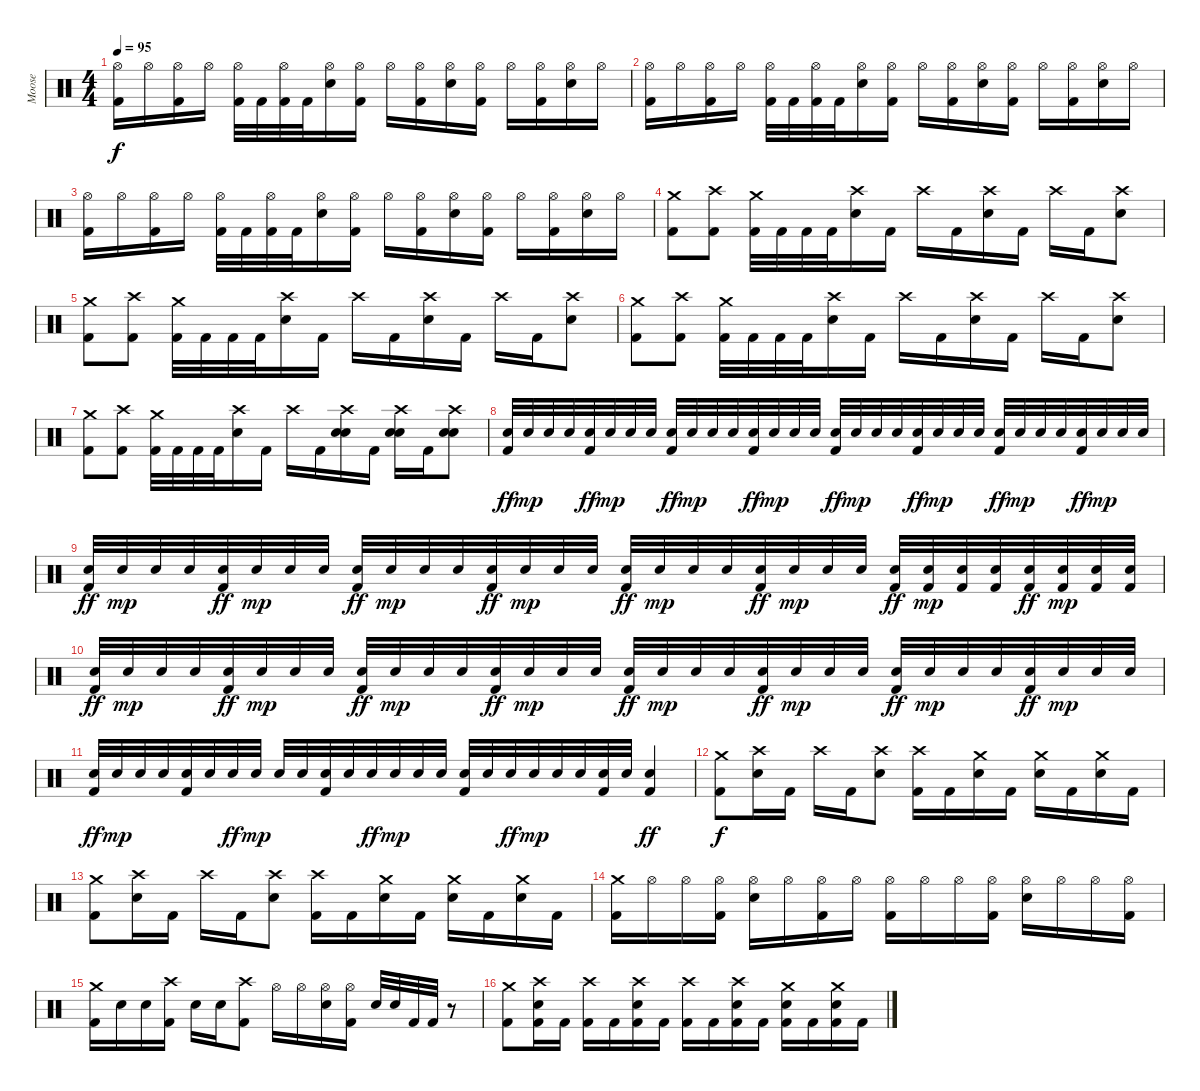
\track ("Moose" "Moose") {instrument percussion}
\staff {score}
\articulation defaults
\ts (4 4)
\tempo 95
\clef neutral
\ks c
("Hi-Hat (open)" "Kick (hit) 2").16{dy f} "Hi-Hat (open)".16 ("Hi-Hat (open)" "Kick (hit) 2").16 "Hi-Hat (open)".16 ("Hi-Hat (open)" "Kick (hit) 2").32 "Kick (hit) 2".32 ("Hi-Hat (open)" "Kick (hit) 2").32 "Kick (hit) 2".32 ("Hi-Hat (open)" "Electric Snare (hit)").16 ("Hi-Hat (open)" "Kick (hit) 2").16 "Hi-Hat (open)".16 ("Hi-Hat (open)" "Kick (hit) 2").16 ("Hi-Hat (open)" "Electric Snare (hit)").16 ("Hi-Hat (open)" "Kick (hit) 2").16 "Hi-Hat (open)".16 ("Hi-Hat (open)" "Kick (hit) 2").16 ("Hi-Hat (open)" "Electric Snare (hit)").16 "Hi-Hat (open)".16 |
("Hi-Hat (open)" "Kick (hit) 2").16 "Hi-Hat (open)".16 ("Hi-Hat (open)" "Kick (hit) 2").16 "Hi-Hat (open)".16 ("Hi-Hat (open)" "Kick (hit) 2").32 "Kick (hit) 2".32 ("Hi-Hat (open)" "Kick (hit) 2").32 "Kick (hit) 2".32 ("Hi-Hat (open)" "Electric Snare (hit)").16 ("Hi-Hat (open)" "Kick (hit) 2").16 "Hi-Hat (open)".16 ("Hi-Hat (open)" "Kick (hit) 2").16 ("Hi-Hat (open)" "Electric Snare (hit)").16 ("Hi-Hat (open)" "Kick (hit) 2").16 "Hi-Hat (open)".16 ("Hi-Hat (open)" "Kick (hit) 2").16 ("Hi-Hat (open)" "Electric Snare (hit)").16 "Hi-Hat (open)".16 |
("Hi-Hat (open)" "Kick (hit) 2").16 "Hi-Hat (open)".16 ("Hi-Hat (open)" "Kick (hit) 2").16 "Hi-Hat (open)".16 ("Hi-Hat (open)" "Kick (hit) 2").32 "Kick (hit) 2".32 ("Hi-Hat (open)" "Kick (hit) 2").32 "Kick (hit) 2".32 ("Hi-Hat (open)" "Electric Snare (hit)").16 ("Hi-Hat (open)" "Kick (hit) 2").16 "Hi-Hat (open)".16 ("Hi-Hat (open)" "Kick (hit) 2").16 ("Hi-Hat (open)" "Electric Snare (hit)").16 ("Hi-Hat (open)" "Kick (hit) 2").16 "Hi-Hat (open)".16 ("Hi-Hat (open)" "Kick (hit) 2").16 ("Hi-Hat (open)" "Electric Snare (hit)").16 "Hi-Hat (open)".16 |
("Crash medium (hit)" "Kick (hit) 2").8 ("Crash high (hit)" "Kick (hit) 2").8 ("Crash medium (hit)" "Kick (hit) 2").32 "Kick (hit) 2".32 "Kick (hit) 2".32 "Kick (hit) 2".32 ("Crash high (hit)" "Electric Snare (hit)").16 "Kick (hit) 2".16 "Crash high (hit)".16 "Kick (hit) 2".16 ("Crash high (hit)" "Electric Snare (hit)").16 "Kick (hit) 2".16 "Crash high (hit)".16 "Kick (hit) 2".16 ("Crash high (hit)" "Electric Snare (hit)").8 |
("Crash medium (hit)" "Kick (hit) 2").8 ("Crash high (hit)" "Kick (hit) 2").8 ("Crash medium (hit)" "Kick (hit) 2").32 "Kick (hit) 2".32 "Kick (hit) 2".32 "Kick (hit) 2".32 ("Crash high (hit)" "Electric Snare (hit)").16 "Kick (hit) 2".16 "Crash high (hit)".16 "Kick (hit) 2".16 ("Crash high (hit)" "Electric Snare (hit)").16 "Kick (hit) 2".16 "Crash high (hit)".16 "Kick (hit) 2".16 ("Crash high (hit)" "Electric Snare (hit)").8 |
("Crash medium (hit)" "Kick (hit) 2").8 ("Crash high (hit)" "Kick (hit) 2").8 ("Crash medium (hit)" "Kick (hit) 2").32 "Kick (hit) 2".32 "Kick (hit) 2".32 "Kick (hit) 2".32 ("Crash high (hit)" "Electric Snare (hit)").16 "Kick (hit) 2".16 "Crash high (hit)".16 "Kick (hit) 2".16 ("Crash high (hit)" "Electric Snare (hit)").16 "Kick (hit) 2".16 "Crash high (hit)".16 "Kick (hit) 2".16 ("Crash high (hit)" "Electric Snare (hit)").8 |
("Crash medium (hit)" "Kick (hit) 2").8 ("Crash high (hit)" "Kick (hit) 2").8 ("Crash medium (hit)" "Kick (hit) 2").32 "Kick (hit) 2".32 "Kick (hit) 2".32 "Kick (hit) 2".32 ("Crash high (hit)" "Electric Snare (hit)").16 "Kick (hit) 2".16 "Crash high (hit)".16 "Kick (hit) 2".16 ("Crash high (hit)" "Electric Snare (hit)" "Electric Snare (hit)").16 "Kick (hit) 2".16 ("Crash high (hit)" "Electric Snare (hit)" "Electric Snare (hit)").16 "Kick (hit) 2".16 ("Crash high (hit)" "Electric Snare (hit)" "Electric Snare (hit)").8 |
("Electric Snare (hit)" "Kick (hit) 2").32{dy ff} "Electric Snare (hit)".32{dy mp} "Electric Snare (hit)".32 "Electric Snare (hit)".32 ("Electric Snare (hit)" "Kick (hit) 2").32{dy ff} "Electric Snare (hit)".32{dy mp} "Electric Snare (hit)".32 "Electric Snare (hit)".32 ("Electric Snare (hit)" "Kick (hit) 2").32{dy ff} "Electric Snare (hit)".32{dy mp} "Electric Snare (hit)".32 "Electric Snare (hit)".32 ("Electric Snare (hit)" "Kick (hit) 2").32{dy ff} "Electric Snare (hit)".32{dy mp} "Electric Snare (hit)".32 "Electric Snare (hit)".32 ("Electric Snare (hit)" "Kick (hit) 2").32{dy ff} "Electric Snare (hit)".32{dy mp} "Electric Snare (hit)".32 "Electric Snare (hit)".32 ("Electric Snare (hit)" "Kick (hit) 2").32{dy ff} "Electric Snare (hit)".32{dy mp} "Electric Snare (hit)".32 "Electric Snare (hit)".32 ("Electric Snare (hit)" "Kick (hit) 2").32{dy ff} "Electric Snare (hit)".32{dy mp} "Electric Snare (hit)".32 "Electric Snare (hit)".32 ("Electric Snare (hit)" "Kick (hit) 2").32{dy ff} "Electric Snare (hit)".32{dy mp} "Electric Snare (hit)".32 "Electric Snare (hit)".32 |
("Electric Snare (hit)" "Kick (hit) 2").32{dy ff} "Electric Snare (hit)".32{dy mp} "Electric Snare (hit)".32 "Electric Snare (hit)".32 ("Electric Snare (hit)" "Kick (hit) 2").32{dy ff} "Electric Snare (hit)".32{dy mp} "Electric Snare (hit)".32 "Electric Snare (hit)".32 ("Electric Snare (hit)" "Kick (hit) 2").32{dy ff} "Electric Snare (hit)".32{dy mp} "Electric Snare (hit)".32 "Electric Snare (hit)".32 ("Electric Snare (hit)" "Kick (hit) 2").32{dy ff} "Electric Snare (hit)".32{dy mp} "Electric Snare (hit)".32 "Electric Snare (hit)".32 ("Electric Snare (hit)" "Kick (hit) 2").32{dy ff} "Electric Snare (hit)".32{dy mp} "Electric Snare (hit)".32 "Electric Snare (hit)".32 ("Electric Snare (hit)" "Kick (hit) 2").32{dy ff} "Electric Snare (hit)".32{dy mp} "Electric Snare (hit)".32 "Electric Snare (hit)".32 ("Electric Snare (hit)" "Kick (hit) 2").32{dy ff} ("Electric Snare (hit)" "Kick (hit) 2").32{dy mp} ("Electric Snare (hit)" "Kick (hit) 2").32 ("Electric Snare (hit)" "Kick (hit) 2").32 ("Electric Snare (hit)" "Kick (hit) 2").32{dy ff} ("Electric Snare (hit)" "Kick (hit) 2").32{dy mp} ("Electric Snare (hit)" "Kick (hit) 2").32 ("Electric Snare (hit)" "Kick (hit) 2").32 |
("Electric Snare (hit)" "Kick (hit) 2").32{dy ff} "Electric Snare (hit)".32{dy mp} "Electric Snare (hit)".32 "Electric Snare (hit)".32 ("Electric Snare (hit)" "Kick (hit) 2").32{dy ff} "Electric Snare (hit)".32{dy mp} "Electric Snare (hit)".32 "Electric Snare (hit)".32 ("Electric Snare (hit)" "Kick (hit) 2").32{dy ff} "Electric Snare (hit)".32{dy mp} "Electric Snare (hit)".32 "Electric Snare (hit)".32 ("Electric Snare (hit)" "Kick (hit) 2").32{dy ff} "Electric Snare (hit)".32{dy mp} "Electric Snare (hit)".32 "Electric Snare (hit)".32 ("Electric Snare (hit)" "Kick (hit) 2").32{dy ff} "Electric Snare (hit)".32{dy mp} "Electric Snare (hit)".32 "Electric Snare (hit)".32 ("Electric Snare (hit)" "Kick (hit) 2").32{dy ff} "Electric Snare (hit)".32{dy mp} "Electric Snare (hit)".32 "Electric Snare (hit)".32 ("Electric Snare (hit)" "Kick (hit) 2").32{dy ff} "Electric Snare (hit)".32{dy mp} "Electric Snare (hit)".32 "Electric Snare (hit)".32 ("Electric Snare (hit)" "Kick (hit) 2").32{dy ff} "Electric Snare (hit)".32{dy mp} "Electric Snare (hit)".32 "Electric Snare (hit)".32 |
("Electric Snare (hit)" "Kick (hit) 2").32{dy ff} "Electric Snare (hit)".32{dy mp} "Electric Snare (hit)".32 "Electric Snare (hit)".32 ("Electric Snare (hit)" "Kick (hit) 2").32 "Electric Snare (hit)".32 "Electric Snare (hit)".32{dy ff} "Electric Snare (hit)".32{dy mp} "Electric Snare (hit)".32 "Electric Snare (hit)".32 ("Electric Snare (hit)" "Kick (hit) 2").32 "Electric Snare (hit)".32 "Electric Snare (hit)".32{dy ff} "Electric Snare (hit)".32{dy mp} "Electric Snare (hit)".32 "Electric Snare (hit)".32 ("Electric Snare (hit)" "Kick (hit) 2").32 "Electric Snare (hit)".32 "Electric Snare (hit)".32{dy ff} "Electric Snare (hit)".32{dy mp} "Electric Snare (hit)".32 "Electric Snare (hit)".32 ("Electric Snare (hit)" "Kick (hit) 2").32 "Electric Snare (hit)".32 ("Electric Snare (hit)" "Kick (hit) 2").4{dy ff} |
("Crash medium (hit)" "Kick (hit) 2").8{dy f} ("Crash high (hit)" "Electric Snare (hit)").16 "Kick (hit) 2".16 "Crash high (hit)".16 "Kick (hit) 2".16 ("Crash high (hit)" "Electric Snare (hit)").8 ("Crash high (hit)" "Kick (hit) 2").16 "Kick (hit) 2".16 ("Crash medium (hit)" "Electric Snare (hit)").16 "Kick (hit) 2".16 ("Crash medium (hit)" "Electric Snare (hit)").16 "Kick (hit) 2".16 ("Crash medium (hit)" "Electric Snare (hit)").16 "Kick (hit) 2".16 |
("Crash medium (hit)" "Kick (hit) 2").8 ("Crash high (hit)" "Electric Snare (hit)").16 "Kick (hit) 2".16 "Crash high (hit)".16 "Kick (hit) 2".16 ("Crash high (hit)" "Electric Snare (hit)").8 ("Crash high (hit)" "Kick (hit) 2").16 "Kick (hit) 2".16 ("Crash medium (hit)" "Electric Snare (hit)").16 "Kick (hit) 2".16 ("Crash medium (hit)" "Electric Snare (hit)").16 "Kick (hit) 2".16 ("Crash medium (hit)" "Electric Snare (hit)").16 "Kick (hit) 2".16 |
("Crash medium (hit)" "Kick (hit) 2").16 "Hi-Hat (open)".16 "Hi-Hat (open)".16 ("Hi-Hat (open)" "Kick (hit) 2").16 ("Hi-Hat (open)" "Electric Snare (hit)").16 "Hi-Hat (open)".16 ("Hi-Hat (open)" "Kick (hit) 2").16 "Hi-Hat (open)".16 ("Hi-Hat (open)" "Kick (hit) 2").16 "Hi-Hat (open)".16 "Hi-Hat (open)".16 ("Hi-Hat (open)" "Kick (hit) 2").16 ("Hi-Hat (open)" "Electric Snare (hit)").16 "Hi-Hat (open)".16 "Hi-Hat (open)".16 ("Hi-Hat (open)" "Kick (hit) 2").16 |
("Crash medium (hit)" "Kick (hit) 2").16 "Electric Snare (hit)".16 "Electric Snare (hit)".16 ("Crash high (hit)" "Kick (hit) 2").16 "Electric Snare (hit)".16 "Electric Snare (hit)".16 ("Crash high (hit)" "Kick (hit) 2").8 "Hi-Hat (open)".16 "Hi-Hat (open)".16 ("Hi-Hat (open)" "Electric Snare (hit)").16 ("Hi-Hat (open)" "Kick (hit) 2").16 "Electric Snare (hit)".32 "Electric Snare (hit)".32 "Kick (hit) 2".32 "Kick (hit) 2".32 r.8 |
("Crash medium (hit)" "Kick (hit) 2").8 ("Crash high (hit)" "Electric Snare (hit)" "Kick (hit) 2").16 "Kick (hit) 2".16 ("Crash high (hit)" "Kick (hit) 2").16 "Kick (hit) 2".16 ("Crash high (hit)" "Electric Snare (hit)" "Kick (hit) 2").16 "Kick (hit) 2".16 ("Crash high (hit)" "Kick (hit) 2").16 "Kick (hit) 2".16 ("Crash high (hit)" "Electric Snare (hit)" "Kick (hit) 2").16 "Kick (hit) 2".16 ("Crash medium (hit)" "Electric Snare (hit)" "Kick (hit) 2").16 "Kick (hit) 2".16 ("Crash medium (hit)" "Electric Snare (hit)" "Kick (hit) 2").16 "Kick (hit) 2".16
